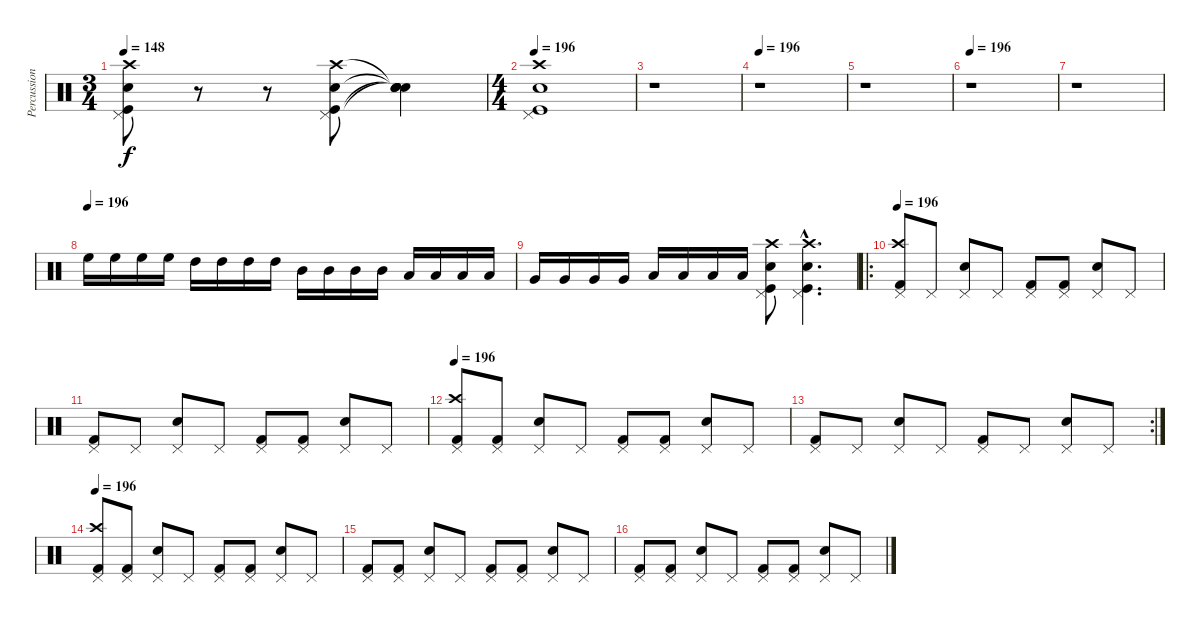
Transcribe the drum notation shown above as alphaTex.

\track ("Percussion" "Percussion") {instrument percussion}
\staff {score}
\articulation defaults
\ts (3 4)
\tempo 148
\clef neutral
\ks c
("Pedal Hi-Hat (hit)" "Kick (hit)" "Snare (hit) 2" "Crash high (hit)").8{dy f} r.8 r.8 ("Pedal Hi-Hat (hit)" "Kick (hit)" "Snare (hit) 2" "Crash high (hit)").8 ("Snare (hit)"{t} "Snare (hit)"{t} "Snare (hit)"{t} "Snare (hit)"{t}).4 |
\ts (4 4)
\tempo 196
("Pedal Hi-Hat (hit)" "Kick (hit)" "Snare (hit) 2" "Crash high (hit)").1 |
r.1 |
\tempo 196
r.1 |
r.1 |
\tempo 196
r.1 |
r.1 |
\tempo (196)
"High Floor Tom (hit)".16 "High Floor Tom (hit)".16 "High Floor Tom (hit)".16 "High Floor Tom (hit)".16 "High Tom (hit)".16 "High Tom (hit)".16 "High Tom (hit)".16 "High Tom (hit)".16 "Mid Tom (hit)".16 "Mid Tom (hit)".16 "Mid Tom (hit)".16 "Mid Tom (hit)".16 "Low Tom (hit)".16 "Low Tom (hit)".16 "Low Tom (hit)".16 "Low Tom (hit)".16 |
"Very Low Tom (hit)".16 "Very Low Tom (hit)".16 "Very Low Tom (hit)".16 "Very Low Tom (hit)".16 "Low Floor Tom (hit)".16 "Low Floor Tom (hit)".16 "Low Floor Tom (hit)".16 "Low Floor Tom (hit)".16 ("Crash high (hit)" "Kick (hit)" "Snare (hit) 2" "Pedal Hi-Hat (hit)").8 ("Crash high (hit)"{hac} "Kick (hit)"{hac} "Snare (hit) 2"{hac} "Pedal Hi-Hat (hit)"{hac}).4{d} |
\ro
\tempo 196
("Pedal Hi-Hat (hit)" "Kick (hit) 2" "Crash high (hit)").8 "Pedal Hi-Hat (hit)".8 ("Pedal Hi-Hat (hit)" "Snare (hit) 2").8 "Pedal Hi-Hat (hit)".8 ("Pedal Hi-Hat (hit)" "Kick (hit) 2").8 ("Pedal Hi-Hat (hit)" "Kick (hit) 2").8 ("Pedal Hi-Hat (hit)" "Snare (hit) 2").8 "Pedal Hi-Hat (hit)".8 |
("Pedal Hi-Hat (hit)" "Kick (hit) 2").8 "Pedal Hi-Hat (hit)".8 ("Pedal Hi-Hat (hit)" "Snare (hit) 2").8 "Pedal Hi-Hat (hit)".8 ("Pedal Hi-Hat (hit)" "Kick (hit) 2").8 ("Pedal Hi-Hat (hit)" "Kick (hit) 2").8 ("Pedal Hi-Hat (hit)" "Snare (hit) 2").8 "Pedal Hi-Hat (hit)".8 |
\tempo 196
("Pedal Hi-Hat (hit)" "Kick (hit) 2" "Crash high (hit)").8 ("Pedal Hi-Hat (hit)" "Kick (hit) 2").8 ("Pedal Hi-Hat (hit)" "Snare (hit) 2").8 "Pedal Hi-Hat (hit)".8 ("Pedal Hi-Hat (hit)" "Kick (hit) 2").8 ("Pedal Hi-Hat (hit)" "Kick (hit) 2").8 ("Pedal Hi-Hat (hit)" "Snare (hit) 2").8 "Pedal Hi-Hat (hit)".8 |
\rc 2
("Pedal Hi-Hat (hit)" "Kick (hit) 2").8 "Pedal Hi-Hat (hit)".8 ("Pedal Hi-Hat (hit)" "Snare (hit) 2").8 "Pedal Hi-Hat (hit)".8 ("Pedal Hi-Hat (hit)" "Kick (hit) 2").8 "Pedal Hi-Hat (hit)".8 ("Pedal Hi-Hat (hit)" "Snare (hit) 2").8 "Pedal Hi-Hat (hit)".8 |
\tempo 196
("Pedal Hi-Hat (hit)" "Kick (hit) 2" "Crash high (hit)").8 ("Pedal Hi-Hat (hit)" "Kick (hit) 2").8 ("Pedal Hi-Hat (hit)" "Snare (hit) 2").8 "Pedal Hi-Hat (hit)".8 ("Pedal Hi-Hat (hit)" "Kick (hit) 2").8 ("Pedal Hi-Hat (hit)" "Kick (hit) 2").8 ("Pedal Hi-Hat (hit)" "Snare (hit) 2").8 "Pedal Hi-Hat (hit)".8 |
("Pedal Hi-Hat (hit)" "Kick (hit) 2").8 ("Pedal Hi-Hat (hit)" "Kick (hit) 2").8 ("Pedal Hi-Hat (hit)" "Snare (hit) 2").8 "Pedal Hi-Hat (hit)".8 ("Pedal Hi-Hat (hit)" "Kick (hit) 2").8 ("Pedal Hi-Hat (hit)" "Kick (hit) 2").8 ("Pedal Hi-Hat (hit)" "Snare (hit) 2").8 "Pedal Hi-Hat (hit)".8 |
("Pedal Hi-Hat (hit)" "Kick (hit) 2").8 ("Pedal Hi-Hat (hit)" "Kick (hit) 2").8 ("Pedal Hi-Hat (hit)" "Snare (hit) 2").8 "Pedal Hi-Hat (hit)".8 ("Pedal Hi-Hat (hit)" "Kick (hit) 2").8 ("Pedal Hi-Hat (hit)" "Kick (hit) 2").8 ("Pedal Hi-Hat (hit)" "Snare (hit) 2").8 "Pedal Hi-Hat (hit)".8
